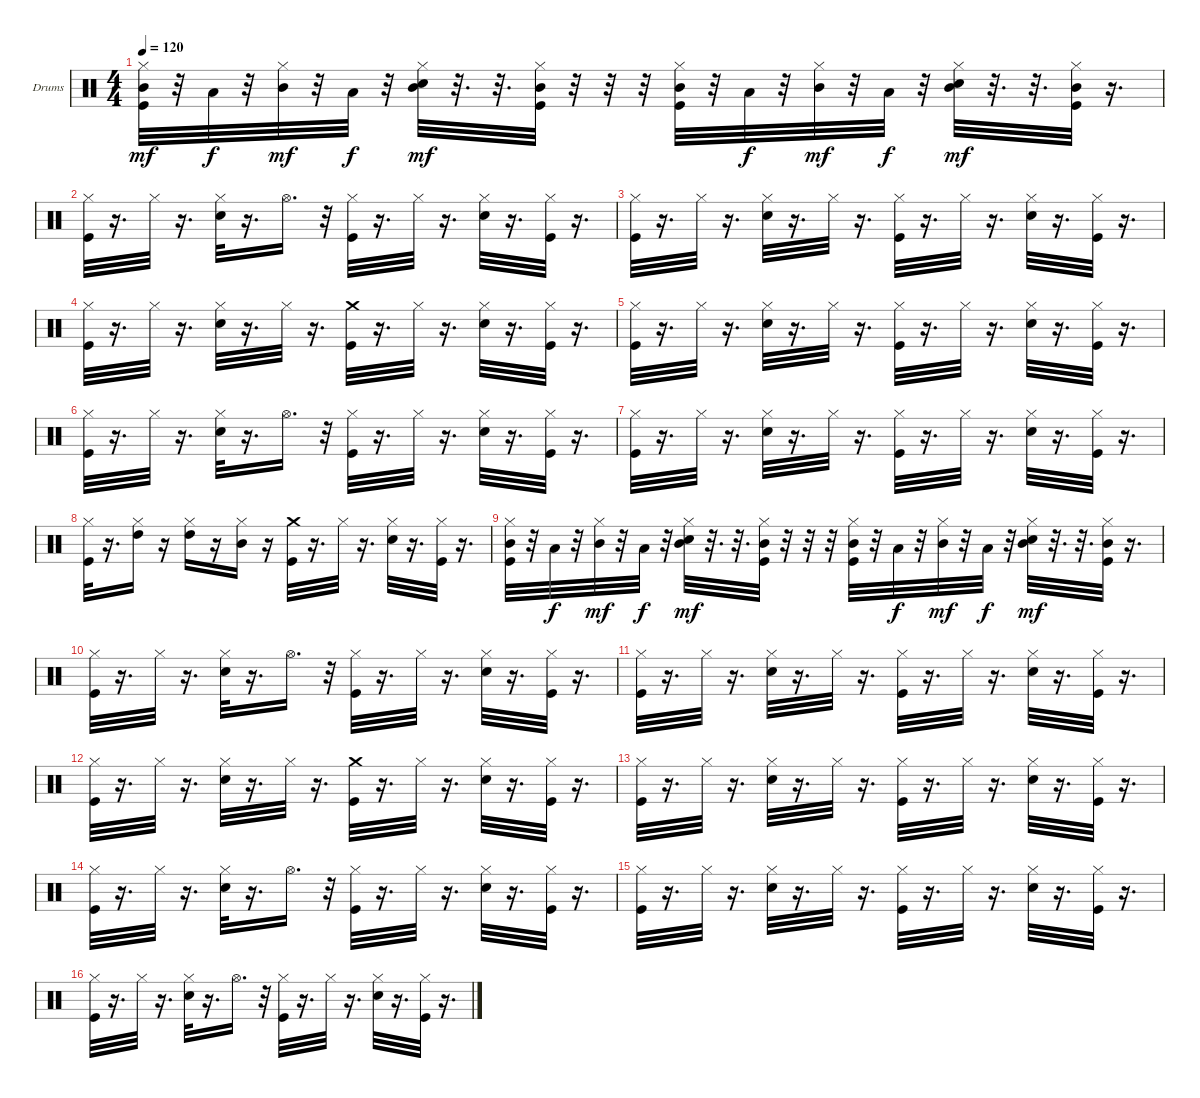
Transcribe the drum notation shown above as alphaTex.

\bracketExtendMode groupsimilarinstruments
\firstSystemTrackNameOrientation horizontal
\otherSystemsTrackNameOrientation horizontal
\track ("Drumkit" "Drums") {instrument percussion}
\staff {score}
\articulation defaults
\ts (4 4)
\tempo 120
\clef neutral
\ks c
("Hi-Hat (closed)" "Kick (hit)" "Mid Tom (hit)").32{dy mf} r.32 "Low Tom (hit)".32{dy f} r.32 ("Hi-Hat (closed)" "Mid Tom (hit)").32{dy mf} r.32 "Low Tom (hit)".32{dy f} r.32 ("Snare (hit) 2" "Hi-Hat (closed)" "Mid Tom (hit)").32{dy mf} r.32{d} r.32{d} ("Hi-Hat (closed)" "Kick (hit)" "Mid Tom (hit)").32 r.32 r.32 r.32 ("Hi-Hat (closed)" "Kick (hit)" "Mid Tom (hit)").32 r.32 "Low Tom (hit)".32{dy f} r.32 ("Hi-Hat (closed)" "Mid Tom (hit)").32{dy mf} r.32 "Low Tom (hit)".32{dy f} r.32 ("Snare (hit) 2" "Hi-Hat (closed)" "Mid Tom (hit)").32{dy mf} r.32{d} r.32{d} ("Hi-Hat (closed)" "Kick (hit)" "Mid Tom (hit)").32 r.16{d} |
("Hi-Hat (closed)" "Kick (hit)").32 r.16{d} "Hi-Hat (closed)".32 r.16{d} ("Hi-Hat (closed)" "Snare (hit) 2").32 r.16{d} "Hi-Hat (open)".16{d} r.32 ("Hi-Hat (closed)" "Kick (hit)").32 r.16{d} "Hi-Hat (closed)".32 r.16{d} ("Hi-Hat (closed)" "Snare (hit) 2").32 r.16{d} ("Hi-Hat (closed)" "Kick (hit)").32 r.16{d} |
("Hi-Hat (closed)" "Kick (hit)").32 r.16{d} "Hi-Hat (closed)".32 r.16{d} ("Hi-Hat (closed)" "Snare (hit) 2").32 r.16{d} "Hi-Hat (closed)".32 r.16{d} ("Hi-Hat (closed)" "Kick (hit)").32 r.16{d} "Hi-Hat (closed)".32 r.16{d} ("Hi-Hat (closed)" "Snare (hit) 2").32 r.16{d} ("Hi-Hat (closed)" "Kick (hit)").32 r.16{d} |
("Hi-Hat (closed)" "Kick (hit)").32 r.16{d} "Hi-Hat (closed)".32 r.16{d} ("Hi-Hat (closed)" "Snare (hit) 2").32 r.16{d} "Hi-Hat (closed)".32 r.16{d} ("Crash medium (hit)" "Kick (hit)").32 r.16{d} "Hi-Hat (closed)".32 r.16{d} ("Hi-Hat (closed)" "Snare (hit) 2").32 r.16{d} ("Hi-Hat (closed)" "Kick (hit)").32 r.16{d} |
("Hi-Hat (closed)" "Kick (hit)").32 r.16{d} "Hi-Hat (closed)".32 r.16{d} ("Hi-Hat (closed)" "Snare (hit) 2").32 r.16{d} "Hi-Hat (closed)".32 r.16{d} ("Hi-Hat (closed)" "Kick (hit)").32 r.16{d} "Hi-Hat (closed)".32 r.16{d} ("Hi-Hat (closed)" "Snare (hit) 2").32 r.16{d} ("Hi-Hat (closed)" "Kick (hit)").32 r.16{d} |
("Hi-Hat (closed)" "Kick (hit)").32 r.16{d} "Hi-Hat (closed)".32 r.16{d} ("Hi-Hat (closed)" "Snare (hit) 2").32 r.16{d} "Hi-Hat (open)".16{d} r.32 ("Hi-Hat (closed)" "Kick (hit)").32 r.16{d} "Hi-Hat (closed)".32 r.16{d} ("Hi-Hat (closed)" "Snare (hit) 2").32 r.16{d} ("Hi-Hat (closed)" "Kick (hit)").32 r.16{d} |
("Hi-Hat (closed)" "Kick (hit)").32 r.16{d} "Hi-Hat (closed)".32 r.16{d} ("Hi-Hat (closed)" "Snare (hit) 2").32 r.16{d} "Hi-Hat (closed)".32 r.16{d} ("Hi-Hat (closed)" "Kick (hit)").32 r.16{d} "Hi-Hat (closed)".32 r.16{d} ("Hi-Hat (closed)" "Snare (hit) 2").32 r.16{d} ("Hi-Hat (closed)" "Kick (hit)").32 r.16{d} |
("Hi-Hat (closed)" "Kick (hit)").32 r.16{d} ("Hi-Hat (closed)" "High Tom (hit)").16 r.16 ("Hi-Hat (closed)" "High Tom (hit)").16 r.16 ("Hi-Hat (closed)" "Mid Tom (hit)").16 r.16 ("Crash medium (hit)" "Kick (hit)").32 r.16{d} "Hi-Hat (closed)".32 r.16{d} ("Hi-Hat (closed)" "Snare (hit) 2").32 r.16{d} ("Hi-Hat (closed)" "Kick (hit)").32 r.16{d} |
("Hi-Hat (closed)" "Kick (hit)" "Mid Tom (hit)").32 r.32 "Low Tom (hit)".32{dy f} r.32 ("Hi-Hat (closed)" "Mid Tom (hit)").32{dy mf} r.32 "Low Tom (hit)".32{dy f} r.32 ("Snare (hit) 2" "Hi-Hat (closed)" "Mid Tom (hit)").32{dy mf} r.32{d} r.32{d} ("Hi-Hat (closed)" "Kick (hit)" "Mid Tom (hit)").32 r.32 r.32 r.32 ("Hi-Hat (closed)" "Kick (hit)" "Mid Tom (hit)").32 r.32 "Low Tom (hit)".32{dy f} r.32 ("Hi-Hat (closed)" "Mid Tom (hit)").32{dy mf} r.32 "Low Tom (hit)".32{dy f} r.32 ("Snare (hit) 2" "Hi-Hat (closed)" "Mid Tom (hit)").32{dy mf} r.32{d} r.32{d} ("Hi-Hat (closed)" "Kick (hit)" "Mid Tom (hit)").32 r.16{d} |
("Hi-Hat (closed)" "Kick (hit)").32 r.16{d} "Hi-Hat (closed)".32 r.16{d} ("Hi-Hat (closed)" "Snare (hit) 2").32 r.16{d} "Hi-Hat (open)".16{d} r.32 ("Hi-Hat (closed)" "Kick (hit)").32 r.16{d} "Hi-Hat (closed)".32 r.16{d} ("Hi-Hat (closed)" "Snare (hit) 2").32 r.16{d} ("Hi-Hat (closed)" "Kick (hit)").32 r.16{d} |
("Hi-Hat (closed)" "Kick (hit)").32 r.16{d} "Hi-Hat (closed)".32 r.16{d} ("Hi-Hat (closed)" "Snare (hit) 2").32 r.16{d} "Hi-Hat (closed)".32 r.16{d} ("Hi-Hat (closed)" "Kick (hit)").32 r.16{d} "Hi-Hat (closed)".32 r.16{d} ("Hi-Hat (closed)" "Snare (hit) 2").32 r.16{d} ("Hi-Hat (closed)" "Kick (hit)").32 r.16{d} |
("Hi-Hat (closed)" "Kick (hit)").32 r.16{d} "Hi-Hat (closed)".32 r.16{d} ("Hi-Hat (closed)" "Snare (hit) 2").32 r.16{d} "Hi-Hat (closed)".32 r.16{d} ("Crash medium (hit)" "Kick (hit)").32 r.16{d} "Hi-Hat (closed)".32 r.16{d} ("Hi-Hat (closed)" "Snare (hit) 2").32 r.16{d} ("Hi-Hat (closed)" "Kick (hit)").32 r.16{d} |
("Hi-Hat (closed)" "Kick (hit)").32 r.16{d} "Hi-Hat (closed)".32 r.16{d} ("Hi-Hat (closed)" "Snare (hit) 2").32 r.16{d} "Hi-Hat (closed)".32 r.16{d} ("Hi-Hat (closed)" "Kick (hit)").32 r.16{d} "Hi-Hat (closed)".32 r.16{d} ("Hi-Hat (closed)" "Snare (hit) 2").32 r.16{d} ("Hi-Hat (closed)" "Kick (hit)").32 r.16{d} |
("Hi-Hat (closed)" "Kick (hit)").32 r.16{d} "Hi-Hat (closed)".32 r.16{d} ("Hi-Hat (closed)" "Snare (hit) 2").32 r.16{d} "Hi-Hat (open)".16{d} r.32 ("Hi-Hat (closed)" "Kick (hit)").32 r.16{d} "Hi-Hat (closed)".32 r.16{d} ("Hi-Hat (closed)" "Snare (hit) 2").32 r.16{d} ("Hi-Hat (closed)" "Kick (hit)").32 r.16{d} |
("Hi-Hat (closed)" "Kick (hit)").32 r.16{d} "Hi-Hat (closed)".32 r.16{d} ("Hi-Hat (closed)" "Snare (hit) 2").32 r.16{d} "Hi-Hat (closed)".32 r.16{d} ("Hi-Hat (closed)" "Kick (hit)").32 r.16{d} "Hi-Hat (closed)".32 r.16{d} ("Hi-Hat (closed)" "Snare (hit) 2").32 r.16{d} ("Hi-Hat (closed)" "Kick (hit)").32 r.16{d} |
("Hi-Hat (closed)" "Kick (hit)").32 r.16{d} "Hi-Hat (closed)".32 r.16{d} ("Hi-Hat (closed)" "Snare (hit) 2").32 r.16{d} "Hi-Hat (open)".16{d} r.32 ("Hi-Hat (closed)" "Kick (hit)").32 r.16{d} "Hi-Hat (closed)".32 r.16{d} ("Hi-Hat (closed)" "Snare (hit) 2").32 r.16{d} ("Hi-Hat (closed)" "Kick (hit)").32 r.16{d}
